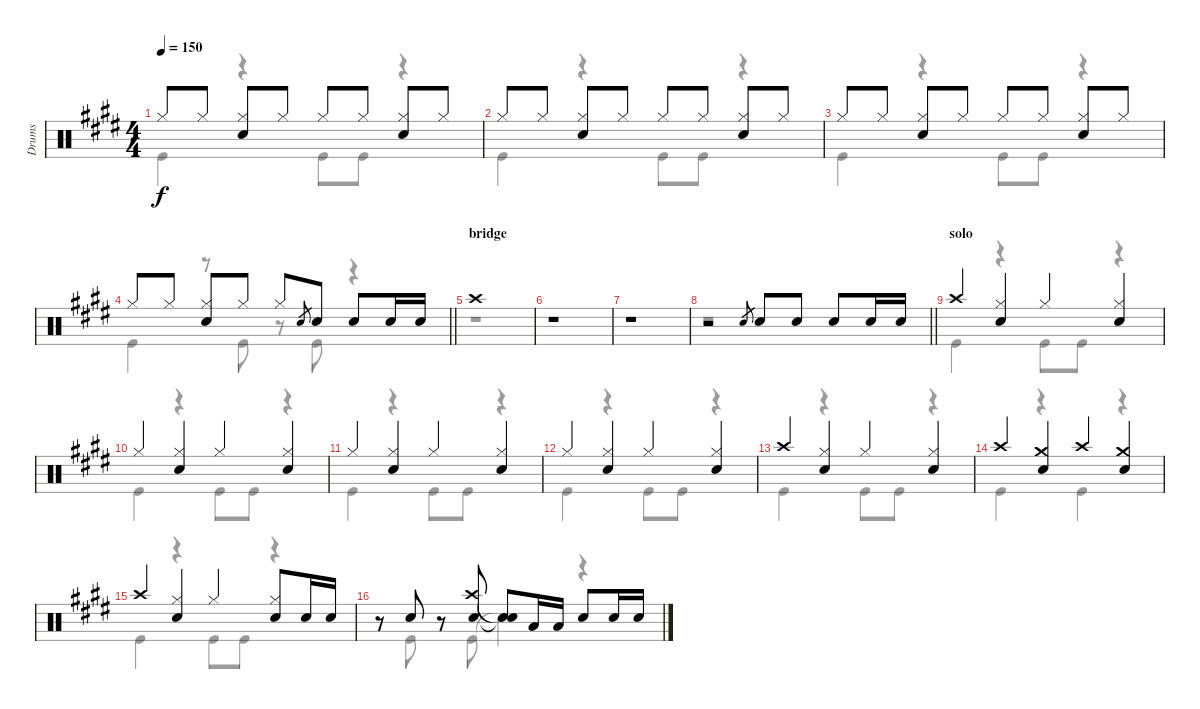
\track ("Drums" "Drums") {instrument percussion}
\staff {score}
\articulation defaults
\voice
\ts (4 4)
\tempo 150
\clef neutral
\ks e "Hi-Hat (closed)".8{dy f} "Hi-Hat (closed)".8
("Hi-Hat (closed)" "Snare (hit) 2").8 "Hi-Hat (closed)".8 "Hi-Hat (closed)".8 "Hi-Hat (closed)".8 ("Hi-Hat (closed)" "Snare (hit) 2").8 "Hi-Hat (closed)".8 |
"Hi-Hat (closed)".8 "Hi-Hat (closed)".8 ("Hi-Hat (closed)" "Snare (hit) 2").8 "Hi-Hat (closed)".8 "Hi-Hat (closed)".8 "Hi-Hat (closed)".8 ("Hi-Hat (closed)" "Snare (hit) 2").8 "Hi-Hat (closed)".8 |
"Hi-Hat (closed)".8 "Hi-Hat (closed)".8 ("Hi-Hat (closed)" "Snare (hit) 2").8 "Hi-Hat (closed)".8 "Hi-Hat (closed)".8 "Hi-Hat (closed)".8 ("Hi-Hat (closed)" "Snare (hit) 2").8 "Hi-Hat (closed)".8 |
\barLineRight lightlight "Hi-Hat (closed)".8 "Hi-Hat (closed)".8
("Hi-Hat (closed)" "Snare (hit) 2").8 "Hi-Hat (closed)".8 "Hi-Hat (closed)".8 "Snare (hit) 2".8{gr} "Snare (hit) 2".8 "Snare (hit) 2".8 "Snare (hit) 2".16 "Snare (hit) 2".16 |
\section ("" "bridge")
"Crash high (hit)".1 |
r.1 |
r.1 |
\barLineRight lightlight
r.2 "Snare (hit) 2".8{gr} "Snare (hit) 2".8{volume 14} "Snare (hit) 2".8 "Snare (hit) 2".8 "Snare (hit) 2".16 "Snare (hit) 2".16 |
\section ("" "solo")
"Crash high (hit)".4 ("Hi-Hat (closed)" "Snare (hit) 2").4 "Hi-Hat (closed)".4 ("Hi-Hat (closed)" "Snare (hit) 2").4 |
"Hi-Hat (closed)".4 ("Hi-Hat (closed)" "Snare (hit) 2").4 "Hi-Hat (closed)".4 ("Hi-Hat (closed)" "Snare (hit) 2").4 |
"Hi-Hat (closed)".4 ("Hi-Hat (closed)" "Snare (hit) 2").4 "Hi-Hat (closed)".4 ("Hi-Hat (closed)" "Snare (hit) 2").4 |
"Hi-Hat (closed)".4 ("Hi-Hat (closed)" "Snare (hit) 2").4 "Hi-Hat (closed)".4 ("Hi-Hat (closed)" "Snare (hit) 2").4 |
"Crash high (hit)".4 ("Hi-Hat (closed)" "Snare (hit) 2").4 "Hi-Hat (closed)".4 ("Hi-Hat (closed)" "Snare (hit) 2").4 |
"Crash high (hit)".4 ("Crash medium (hit)" "Snare (hit) 2").4 "Crash high (hit)".4 ("Crash medium (hit)" "Snare (hit) 2").4 |
"Crash high (hit)".4 ("Hi-Hat (closed)" "Snare (hit) 2").4 "Hi-Hat (closed)".4 ("Hi-Hat (closed)" "Snare (hit) 2").8 "Snare (hit) 2".16 "Snare (hit) 2".16 |
r.8 "Snare (hit) 2".8 r.8 ("Crash high (hit)" "Snare (hit) 2").8 ("Snare (hit)"{t} "Snare (hit)"{t}).8 "Low Tom (hit)".16 "Low Tom (hit)".16 "Snare (hit) 2".8 "Snare (hit) 2".16 "Snare (hit) 2".16
\voice
\clef neutral
\ottava regular
\simile none
\ks e "Kick (hit)".4{dy f}
r.4 "Kick (hit)".8 "Kick (hit)".8 r.4 |
"Kick (hit)".4 r.4 "Kick (hit)".8 "Kick (hit)".8 r.4 |
"Kick (hit)".4 r.4 "Kick (hit)".8 "Kick (hit)".8 r.4 |
\barLineRight lightlight "Kick (hit)".4
r.8 "Kick (hit)".8 r.8 "Kick (hit)".8 r.4 |
r.1 |
r.1 |
r.1 |
\barLineRight lightlight
r.1 |
"Kick (hit)".4 r.4 "Kick (hit)".8 "Kick (hit)".8 r.4 |
"Kick (hit)".4 r.4 "Kick (hit)".8 "Kick (hit)".8 r.4 |
"Kick (hit)".4 r.4 "Kick (hit)".8 "Kick (hit)".8 r.4 |
"Kick (hit)".4 r.4 "Kick (hit)".8 "Kick (hit)".8 r.4 |
"Kick (hit)".4 r.4 "Kick (hit)".8 "Kick (hit)".8 r.4 |
"Kick (hit)".4 r.4 "Kick (hit)".4 r.4 |
"Kick (hit)".4 r.4 "Kick (hit)".8 "Kick (hit)".8 r.4 |
r.8 "Kick (hit)".8 r.8 "Kick (hit)".8 "Snare (hit)"{t}.4 r.4
